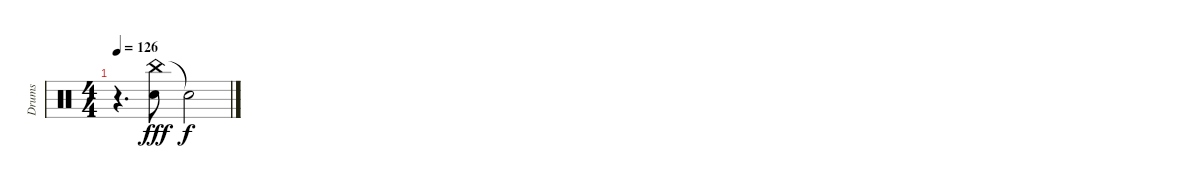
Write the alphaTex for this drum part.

\track ("Drums" "Drums") {instrument percussion}
\staff {score}
\articulation defaults
\ts (4 4)
\tempo 126
\clef neutral
\ks c
r.4{d dy fff} ("China (hit)" "Snare (hit) 2").8 "Snare (hit) 2"{t}.2{dy f}
